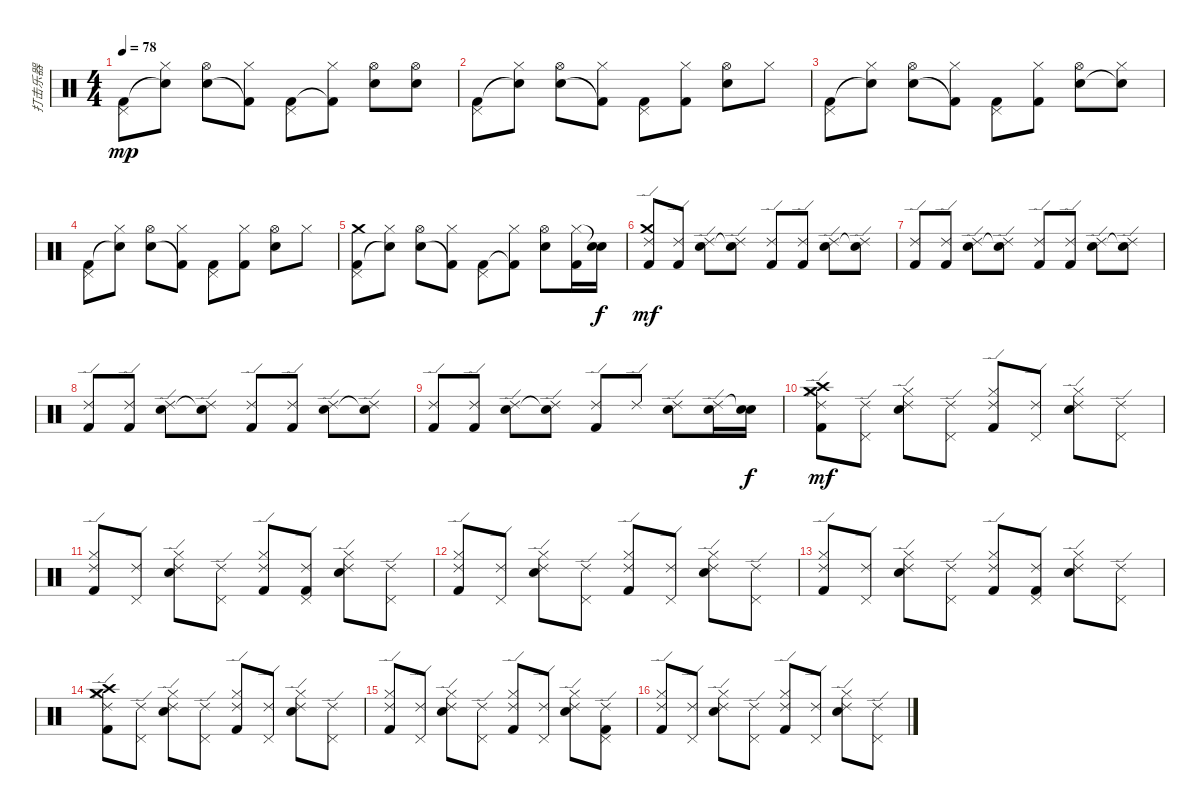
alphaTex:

\track ("打击乐器" "打击乐器") {instrument percussion}
\staff {score}
\articulation defaults
\ts (4 4)
\tempo 78
\clef neutral
\ks c
("Pedal Hi-Hat (hit)" "Kick (hit) 2").8{dy mp} ("Hi-Hat (closed)" "Snare (hit)"{t}).8 ("Hi-Hat (open)" "Electric Snare (hit)").8 ("Hi-Hat (closed)" "Kick (hit) 2"{t}).8 ("Pedal Hi-Hat (hit)" "Kick (hit) 2").8 ("Hi-Hat (closed)" "Kick (hit) 2"{t}).8 ("Hi-Hat (open)" "Electric Snare (hit)").8 ("Hi-Hat (open)" "Electric Snare (hit)").8 |
("Pedal Hi-Hat (hit)" "Kick (hit) 2").8 ("Hi-Hat (closed)" "Snare (hit)"{t}).8 ("Hi-Hat (open)" "Electric Snare (hit)").8 ("Hi-Hat (closed)" "Kick (hit) 2"{t}).8 ("Pedal Hi-Hat (hit)" "Kick (hit) 2").8 ("Hi-Hat (closed)" "Kick (hit) 2").8 ("Hi-Hat (open)" "Electric Snare (hit)").8 "Hi-Hat (closed)".8 |
("Pedal Hi-Hat (hit)" "Kick (hit) 2").8 ("Hi-Hat (closed)" "Snare (hit)"{t}).8 ("Hi-Hat (open)" "Electric Snare (hit)").8 ("Hi-Hat (closed)" "Kick (hit) 2"{t}).8 ("Pedal Hi-Hat (hit)" "Kick (hit) 2").8 ("Hi-Hat (closed)" "Kick (hit) 2").8 ("Hi-Hat (open)" "Electric Snare (hit)").8 ("Hi-Hat (closed)" "Electric Snare (hit)"{t}).8 |
("Pedal Hi-Hat (hit)" "Kick (hit) 2").8 ("Hi-Hat (closed)" "Snare (hit)"{t}).8 ("Hi-Hat (open)" "Electric Snare (hit)").8 ("Hi-Hat (closed)" "Kick (hit) 2"{t}).8 ("Pedal Hi-Hat (hit)" "Kick (hit) 2").8 ("Hi-Hat (closed)" "Kick (hit) 2").8 ("Hi-Hat (open)" "Electric Snare (hit)").8 "Hi-Hat (closed)".8 |
("Pedal Hi-Hat (hit)" "Kick (hit) 2" "Crash medium (hit)").8 ("Hi-Hat (closed)" "Snare (hit)"{t}).8 ("Hi-Hat (open)" "Electric Snare (hit)").8 ("Hi-Hat (closed)" "Kick (hit) 2"{t}).8 ("Pedal Hi-Hat (hit)" "Kick (hit) 2").8 ("Hi-Hat (closed)" "Kick (hit) 2"{t}).8 ("Hi-Hat (open)" "Electric Snare (hit)").8 ("Hi-Hat (closed)" "Kick (hit) 2").16 ("Snare (hit)"{t} "Electric Snare (hit)").16{dy f} |
("Ride (edge) 2" "Kick (hit) 2" "Crash medium (hit)").8{dy mf} ("Ride (edge) 2" "Kick (hit) 2").8 ("Ride (edge) 2" "Electric Snare (hit)").8 ("Ride (edge) 2" "Snare (hit)"{t}).8 ("Ride (edge) 2" "Kick (hit) 2").8 ("Ride (edge) 2" "Kick (hit) 2").8 ("Ride (edge) 2" "Electric Snare (hit)").8 ("Ride (edge) 2" "Snare (hit)"{t}).8 |
("Ride (edge) 2" "Kick (hit) 2").8 ("Ride (edge) 2" "Kick (hit) 2").8 ("Ride (edge) 2" "Electric Snare (hit)").8 ("Ride (edge) 2" "Snare (hit)"{t}).8 ("Ride (edge) 2" "Kick (hit) 2").8 ("Ride (edge) 2" "Kick (hit) 2").8 ("Ride (edge) 2" "Electric Snare (hit)").8 ("Ride (edge) 2" "Snare (hit)"{t}).8 |
("Ride (edge) 2" "Kick (hit) 2").8 ("Ride (edge) 2" "Kick (hit) 2").8 ("Ride (edge) 2" "Electric Snare (hit)").8 ("Ride (edge) 2" "Snare (hit)"{t}).8 ("Ride (edge) 2" "Kick (hit) 2").8 ("Ride (edge) 2" "Kick (hit) 2").8 ("Ride (edge) 2" "Electric Snare (hit)").8 ("Ride (edge) 2" "Snare (hit)"{t}).8 |
("Ride (edge) 2" "Kick (hit) 2").8 ("Ride (edge) 2" "Kick (hit) 2").8 ("Ride (edge) 2" "Electric Snare (hit)").8 ("Ride (edge) 2" "Snare (hit)"{t}).8 ("Ride (edge) 2" "Kick (hit) 2").8 "Ride (edge) 2".8 ("Ride (edge) 2" "Electric Snare (hit)").8 ("Ride (edge) 2" "Electric Snare (hit)").16 ("Snare (hit)"{t} "Electric Snare (hit)").16{dy f} |
("Kick (hit) 2" "Hi-Hat (closed)" "Crash high (hit)" "Crash medium (hit)" "Ride (edge) 2").8{dy mf} ("Pedal Hi-Hat (hit)" "Ride (edge) 2").8 ("Electric Snare (hit)" "Hi-Hat (closed)" "Ride (edge) 2").8 ("Pedal Hi-Hat (hit)" "Ride (edge) 2").8 ("Kick (hit) 2" "Hi-Hat (closed)" "Ride (edge) 2").8 ("Pedal Hi-Hat (hit)" "Ride (edge) 2").8 ("Electric Snare (hit)" "Hi-Hat (closed)" "Ride (edge) 2").8 ("Pedal Hi-Hat (hit)" "Ride (edge) 2").8 |
("Kick (hit) 2" "Hi-Hat (closed)" "Ride (edge) 2").8 ("Pedal Hi-Hat (hit)" "Ride (edge) 2").8 ("Electric Snare (hit)" "Hi-Hat (closed)" "Ride (edge) 2").8 ("Pedal Hi-Hat (hit)" "Ride (edge) 2").8 ("Kick (hit) 2" "Hi-Hat (closed)" "Ride (edge) 2").8 ("Kick (hit) 2" "Pedal Hi-Hat (hit)" "Ride (edge) 2").8 ("Electric Snare (hit)" "Hi-Hat (closed)" "Ride (edge) 2").8 ("Pedal Hi-Hat (hit)" "Ride (edge) 2").8 |
("Kick (hit) 2" "Hi-Hat (closed)" "Ride (edge) 2").8 ("Pedal Hi-Hat (hit)" "Ride (edge) 2").8 ("Electric Snare (hit)" "Hi-Hat (closed)" "Ride (edge) 2").8 ("Pedal Hi-Hat (hit)" "Ride (edge) 2").8 ("Kick (hit) 2" "Hi-Hat (closed)" "Ride (edge) 2").8 ("Pedal Hi-Hat (hit)" "Ride (edge) 2").8 ("Electric Snare (hit)" "Hi-Hat (closed)" "Ride (edge) 2").8 ("Pedal Hi-Hat (hit)" "Ride (edge) 2").8 |
("Kick (hit) 2" "Hi-Hat (closed)" "Ride (edge) 2").8 ("Pedal Hi-Hat (hit)" "Ride (edge) 2").8 ("Electric Snare (hit)" "Hi-Hat (closed)" "Ride (edge) 2").8 ("Pedal Hi-Hat (hit)" "Ride (edge) 2").8 ("Kick (hit) 2" "Hi-Hat (closed)" "Ride (edge) 2").8 ("Kick (hit) 2" "Pedal Hi-Hat (hit)" "Ride (edge) 2").8 ("Electric Snare (hit)" "Hi-Hat (closed)" "Ride (edge) 2").8 ("Pedal Hi-Hat (hit)" "Ride (edge) 2").8 |
("Kick (hit) 2" "Hi-Hat (closed)" "Crash high (hit)" "Crash medium (hit)" "Ride (edge) 2").8 ("Pedal Hi-Hat (hit)" "Ride (edge) 2").8 ("Electric Snare (hit)" "Hi-Hat (closed)" "Ride (edge) 2").8 ("Pedal Hi-Hat (hit)" "Ride (edge) 2").8 ("Kick (hit) 2" "Hi-Hat (closed)" "Ride (edge) 2").8 ("Pedal Hi-Hat (hit)" "Ride (edge) 2").8 ("Electric Snare (hit)" "Hi-Hat (closed)" "Ride (edge) 2").8 ("Pedal Hi-Hat (hit)" "Ride (edge) 2").8 |
("Kick (hit) 2" "Hi-Hat (closed)" "Ride (edge) 2").8 ("Pedal Hi-Hat (hit)" "Ride (edge) 2").8 ("Electric Snare (hit)" "Hi-Hat (closed)" "Ride (edge) 2").8 ("Pedal Hi-Hat (hit)" "Ride (edge) 2").8 ("Kick (hit) 2" "Hi-Hat (closed)" "Ride (edge) 2").8 ("Pedal Hi-Hat (hit)" "Ride (edge) 2").8 ("Electric Snare (hit)" "Hi-Hat (closed)" "Ride (edge) 2").8 ("Kick (hit) 2" "Pedal Hi-Hat (hit)" "Ride (edge) 2").8 |
("Kick (hit) 2" "Hi-Hat (closed)" "Ride (edge) 2").8 ("Pedal Hi-Hat (hit)" "Ride (edge) 2").8 ("Electric Snare (hit)" "Hi-Hat (closed)" "Ride (edge) 2").8 ("Pedal Hi-Hat (hit)" "Ride (edge) 2").8 ("Kick (hit) 2" "Hi-Hat (closed)" "Ride (edge) 2").8 ("Pedal Hi-Hat (hit)" "Ride (edge) 2").8 ("Electric Snare (hit)" "Hi-Hat (closed)" "Ride (edge) 2").8 ("Pedal Hi-Hat (hit)" "Ride (edge) 2").8
